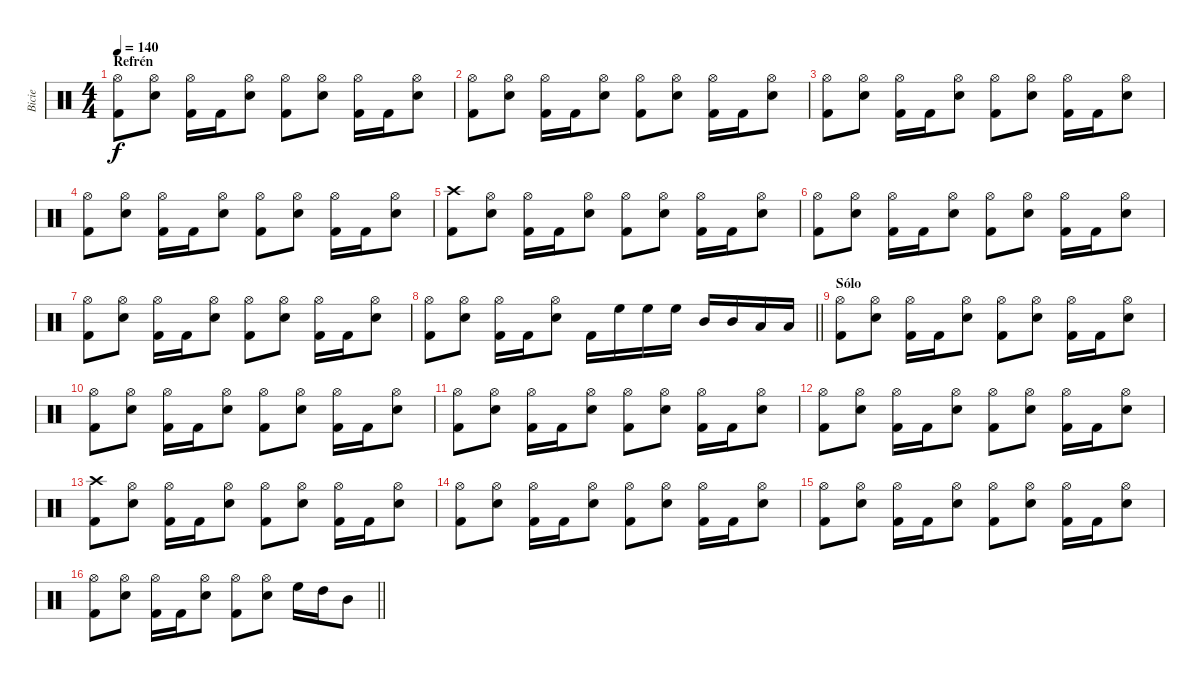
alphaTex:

\track ("Bicie" "Bicie") {instrument percussion}
\staff {score}
\articulation defaults
\ts (4 4)
\section ("" "Refrén")
\tempo 140
\clef neutral
\ks c
("Hi-Hat (open)" "Kick (hit) 2").8{dy f} ("Hi-Hat (open)" "Snare (hit) 2").8 ("Hi-Hat (open)" "Kick (hit) 2").16 "Kick (hit) 2".16 ("Hi-Hat (open)" "Snare (hit) 2").8 ("Hi-Hat (open)" "Kick (hit) 2").8 ("Hi-Hat (open)" "Snare (hit) 2").8 ("Hi-Hat (open)" "Kick (hit) 2").16 "Kick (hit) 2".16 ("Hi-Hat (open)" "Snare (hit) 2").8 |
("Hi-Hat (open)" "Kick (hit) 2").8 ("Hi-Hat (open)" "Snare (hit) 2").8 ("Hi-Hat (open)" "Kick (hit) 2").16 "Kick (hit) 2".16 ("Hi-Hat (open)" "Snare (hit) 2").8 ("Hi-Hat (open)" "Kick (hit) 2").8 ("Hi-Hat (open)" "Snare (hit) 2").8 ("Hi-Hat (open)" "Kick (hit) 2").16 "Kick (hit) 2".16 ("Hi-Hat (open)" "Snare (hit) 2").8 |
("Hi-Hat (open)" "Kick (hit) 2").8 ("Hi-Hat (open)" "Snare (hit) 2").8 ("Hi-Hat (open)" "Kick (hit) 2").16 "Kick (hit) 2".16 ("Hi-Hat (open)" "Snare (hit) 2").8 ("Hi-Hat (open)" "Kick (hit) 2").8 ("Hi-Hat (open)" "Snare (hit) 2").8 ("Hi-Hat (open)" "Kick (hit) 2").16 "Kick (hit) 2".16 ("Hi-Hat (open)" "Snare (hit) 2").8 |
("Hi-Hat (open)" "Kick (hit) 2").8 ("Hi-Hat (open)" "Snare (hit) 2").8 ("Hi-Hat (open)" "Kick (hit) 2").16 "Kick (hit) 2".16 ("Hi-Hat (open)" "Snare (hit) 2").8 ("Hi-Hat (open)" "Kick (hit) 2").8 ("Hi-Hat (open)" "Snare (hit) 2").8 ("Hi-Hat (open)" "Kick (hit) 2").16 "Kick (hit) 2".16 ("Hi-Hat (open)" "Snare (hit) 2").8 |
("Crash high (hit)" "Kick (hit) 2").8 ("Hi-Hat (open)" "Snare (hit) 2").8 ("Hi-Hat (open)" "Kick (hit) 2").16 "Kick (hit) 2".16 ("Hi-Hat (open)" "Snare (hit) 2").8 ("Hi-Hat (open)" "Kick (hit) 2").8 ("Hi-Hat (open)" "Snare (hit) 2").8 ("Hi-Hat (open)" "Kick (hit) 2").16 "Kick (hit) 2".16 ("Hi-Hat (open)" "Snare (hit) 2").8 |
("Hi-Hat (open)" "Kick (hit) 2").8 ("Hi-Hat (open)" "Snare (hit) 2").8 ("Hi-Hat (open)" "Kick (hit) 2").16 "Kick (hit) 2".16 ("Hi-Hat (open)" "Snare (hit) 2").8 ("Hi-Hat (open)" "Kick (hit) 2").8 ("Hi-Hat (open)" "Snare (hit) 2").8 ("Hi-Hat (open)" "Kick (hit) 2").16 "Kick (hit) 2".16 ("Hi-Hat (open)" "Snare (hit) 2").8 |
("Hi-Hat (open)" "Kick (hit) 2").8 ("Hi-Hat (open)" "Snare (hit) 2").8 ("Hi-Hat (open)" "Kick (hit) 2").16 "Kick (hit) 2".16 ("Hi-Hat (open)" "Snare (hit) 2").8 ("Hi-Hat (open)" "Kick (hit) 2").8 ("Hi-Hat (open)" "Snare (hit) 2").8 ("Hi-Hat (open)" "Kick (hit) 2").16 "Kick (hit) 2".16 ("Hi-Hat (open)" "Snare (hit) 2").8 |
\barLineRight lightlight
("Hi-Hat (open)" "Kick (hit) 2").8 ("Hi-Hat (open)" "Snare (hit) 2").8 ("Hi-Hat (open)" "Kick (hit) 2").16 "Kick (hit) 2".16 ("Hi-Hat (open)" "Snare (hit) 2").8 "Kick (hit) 2".16 "High Floor Tom (hit)".16 "High Floor Tom (hit)".16 "High Floor Tom (hit)".16 "Mid Tom (hit)".16 "Mid Tom (hit)".16 "Low Tom (hit)".16 "Low Tom (hit)".16 |
\section ("" "Sólo")
("Hi-Hat (open)" "Kick (hit) 2").8 ("Hi-Hat (open)" "Snare (hit) 2").8 ("Hi-Hat (open)" "Kick (hit) 2").16 "Kick (hit) 2".16 ("Hi-Hat (open)" "Snare (hit) 2").8 ("Hi-Hat (open)" "Kick (hit) 2").8 ("Hi-Hat (open)" "Snare (hit) 2").8 ("Hi-Hat (open)" "Kick (hit) 2").16 "Kick (hit) 2".16 ("Hi-Hat (open)" "Snare (hit) 2").8 |
("Hi-Hat (open)" "Kick (hit) 2").8 ("Hi-Hat (open)" "Snare (hit) 2").8 ("Hi-Hat (open)" "Kick (hit) 2").16 "Kick (hit) 2".16 ("Hi-Hat (open)" "Snare (hit) 2").8 ("Hi-Hat (open)" "Kick (hit) 2").8 ("Hi-Hat (open)" "Snare (hit) 2").8 ("Hi-Hat (open)" "Kick (hit) 2").16 "Kick (hit) 2".16 ("Hi-Hat (open)" "Snare (hit) 2").8 |
("Hi-Hat (open)" "Kick (hit) 2").8 ("Hi-Hat (open)" "Snare (hit) 2").8 ("Hi-Hat (open)" "Kick (hit) 2").16 "Kick (hit) 2".16 ("Hi-Hat (open)" "Snare (hit) 2").8 ("Hi-Hat (open)" "Kick (hit) 2").8 ("Hi-Hat (open)" "Snare (hit) 2").8 ("Hi-Hat (open)" "Kick (hit) 2").16 "Kick (hit) 2".16 ("Hi-Hat (open)" "Snare (hit) 2").8 |
("Hi-Hat (open)" "Kick (hit) 2").8 ("Hi-Hat (open)" "Snare (hit) 2").8 ("Hi-Hat (open)" "Kick (hit) 2").16 "Kick (hit) 2".16 ("Hi-Hat (open)" "Snare (hit) 2").8 ("Hi-Hat (open)" "Kick (hit) 2").8 ("Hi-Hat (open)" "Snare (hit) 2").8 ("Hi-Hat (open)" "Kick (hit) 2").16 "Kick (hit) 2".16 ("Hi-Hat (open)" "Snare (hit) 2").8 |
("Crash high (hit)" "Kick (hit) 2").8 ("Hi-Hat (open)" "Snare (hit) 2").8 ("Hi-Hat (open)" "Kick (hit) 2").16 "Kick (hit) 2".16 ("Hi-Hat (open)" "Snare (hit) 2").8 ("Hi-Hat (open)" "Kick (hit) 2").8 ("Hi-Hat (open)" "Snare (hit) 2").8 ("Hi-Hat (open)" "Kick (hit) 2").16 "Kick (hit) 2".16 ("Hi-Hat (open)" "Snare (hit) 2").8 |
("Hi-Hat (open)" "Kick (hit) 2").8 ("Hi-Hat (open)" "Snare (hit) 2").8 ("Hi-Hat (open)" "Kick (hit) 2").16 "Kick (hit) 2".16 ("Hi-Hat (open)" "Snare (hit) 2").8 ("Hi-Hat (open)" "Kick (hit) 2").8 ("Hi-Hat (open)" "Snare (hit) 2").8 ("Hi-Hat (open)" "Kick (hit) 2").16 "Kick (hit) 2".16 ("Hi-Hat (open)" "Snare (hit) 2").8 |
("Hi-Hat (open)" "Kick (hit) 2").8 ("Hi-Hat (open)" "Snare (hit) 2").8 ("Hi-Hat (open)" "Kick (hit) 2").16 "Kick (hit) 2".16 ("Hi-Hat (open)" "Snare (hit) 2").8 ("Hi-Hat (open)" "Kick (hit) 2").8 ("Hi-Hat (open)" "Snare (hit) 2").8 ("Hi-Hat (open)" "Kick (hit) 2").16 "Kick (hit) 2".16 ("Hi-Hat (open)" "Snare (hit) 2").8 |
\barLineRight lightlight
("Hi-Hat (open)" "Kick (hit) 2").8 ("Hi-Hat (open)" "Snare (hit) 2").8 ("Hi-Hat (open)" "Kick (hit) 2").16 "Kick (hit) 2".16 ("Hi-Hat (open)" "Snare (hit) 2").8 ("Hi-Hat (open)" "Kick (hit) 2").8 ("Hi-Hat (open)" "Snare (hit) 2").8 "High Floor Tom (hit)".16 "High Tom (hit)".16 "Mid Tom (hit)".8
